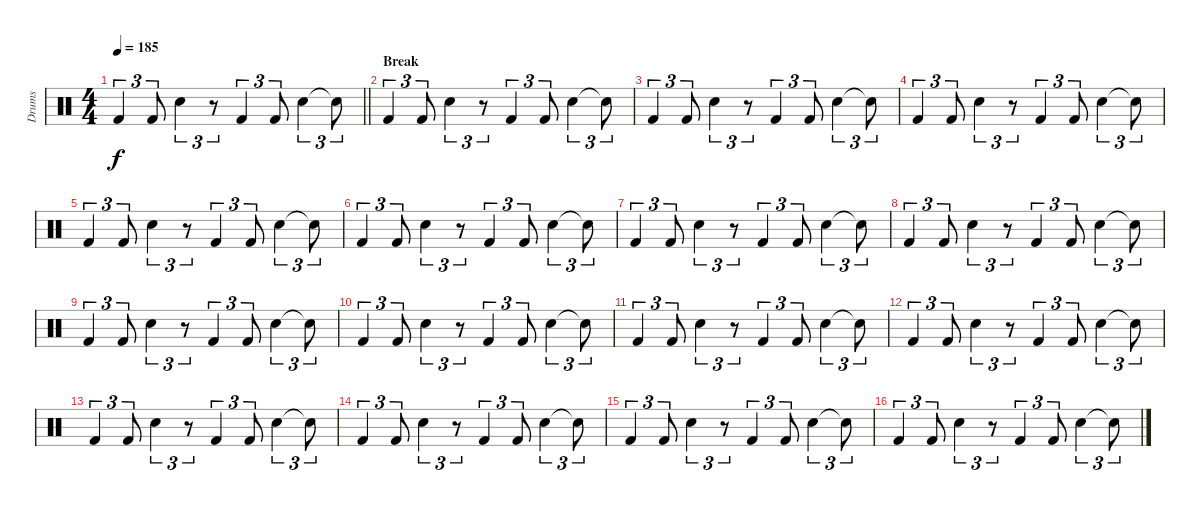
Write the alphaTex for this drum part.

\track ("Drums" "Drums") {instrument percussion}
\staff {score}
\articulation defaults
\ts (4 4)
\tempo 185
\clef neutral
\barLineRight lightlight
\ks c "Kick (hit) 2".4{tu (3 2) dy f} "Kick (hit) 2".8{tu (3 2)} "Snare (hit) 2".4{tu (3 2)}
r.8{tu (3 2)} "Kick (hit) 2".4{tu (3 2)} "Kick (hit) 2".8{tu (3 2)} "Snare (hit) 2".4{tu (3 2)} "Snare (hit)"{t}.8{tu (3 2)} |
\section ("" "Break")
"Kick (hit) 2".4{tu (3 2)} "Kick (hit) 2".8{tu (3 2)} "Snare (hit) 2".4{tu (3 2)} r.8{tu (3 2)} "Kick (hit) 2".4{tu (3 2)} "Kick (hit) 2".8{tu (3 2)} "Snare (hit) 2".4{tu (3 2)} "Snare (hit)"{t}.8{tu (3 2)} |
"Kick (hit) 2".4{tu (3 2)} "Kick (hit) 2".8{tu (3 2)} "Snare (hit) 2".4{tu (3 2)} r.8{tu (3 2)} "Kick (hit) 2".4{tu (3 2)} "Kick (hit) 2".8{tu (3 2)} "Snare (hit) 2".4{tu (3 2)} "Snare (hit)"{t}.8{tu (3 2)} |
"Kick (hit) 2".4{tu (3 2)} "Kick (hit) 2".8{tu (3 2)} "Snare (hit) 2".4{tu (3 2)} r.8{tu (3 2)} "Kick (hit) 2".4{tu (3 2)} "Kick (hit) 2".8{tu (3 2)} "Snare (hit) 2".4{tu (3 2)} "Snare (hit)"{t}.8{tu (3 2)} |
"Kick (hit) 2".4{tu (3 2)} "Kick (hit) 2".8{tu (3 2)} "Snare (hit) 2".4{tu (3 2)} r.8{tu (3 2)} "Kick (hit) 2".4{tu (3 2)} "Kick (hit) 2".8{tu (3 2)} "Snare (hit) 2".4{tu (3 2)} "Snare (hit)"{t}.8{tu (3 2)} |
"Kick (hit) 2".4{tu (3 2)} "Kick (hit) 2".8{tu (3 2)} "Snare (hit) 2".4{tu (3 2)} r.8{tu (3 2)} "Kick (hit) 2".4{tu (3 2)} "Kick (hit) 2".8{tu (3 2)} "Snare (hit) 2".4{tu (3 2)} "Snare (hit)"{t}.8{tu (3 2)} |
"Kick (hit) 2".4{tu (3 2)} "Kick (hit) 2".8{tu (3 2)} "Snare (hit) 2".4{tu (3 2)} r.8{tu (3 2)} "Kick (hit) 2".4{tu (3 2)} "Kick (hit) 2".8{tu (3 2)} "Snare (hit) 2".4{tu (3 2)} "Snare (hit)"{t}.8{tu (3 2)} |
"Kick (hit) 2".4{tu (3 2)} "Kick (hit) 2".8{tu (3 2)} "Snare (hit) 2".4{tu (3 2)} r.8{tu (3 2)} "Kick (hit) 2".4{tu (3 2)} "Kick (hit) 2".8{tu (3 2)} "Snare (hit) 2".4{tu (3 2)} "Snare (hit)"{t}.8{tu (3 2)} |
"Kick (hit) 2".4{tu (3 2)} "Kick (hit) 2".8{tu (3 2)} "Snare (hit) 2".4{tu (3 2)} r.8{tu (3 2)} "Kick (hit) 2".4{tu (3 2)} "Kick (hit) 2".8{tu (3 2)} "Snare (hit) 2".4{tu (3 2)} "Snare (hit)"{t}.8{tu (3 2)} |
"Kick (hit) 2".4{tu (3 2)} "Kick (hit) 2".8{tu (3 2)} "Snare (hit) 2".4{tu (3 2)} r.8{tu (3 2)} "Kick (hit) 2".4{tu (3 2)} "Kick (hit) 2".8{tu (3 2)} "Snare (hit) 2".4{tu (3 2)} "Snare (hit)"{t}.8{tu (3 2)} |
"Kick (hit) 2".4{tu (3 2)} "Kick (hit) 2".8{tu (3 2)} "Snare (hit) 2".4{tu (3 2)} r.8{tu (3 2)} "Kick (hit) 2".4{tu (3 2)} "Kick (hit) 2".8{tu (3 2)} "Snare (hit) 2".4{tu (3 2)} "Snare (hit)"{t}.8{tu (3 2)} |
"Kick (hit) 2".4{tu (3 2)} "Kick (hit) 2".8{tu (3 2)} "Snare (hit) 2".4{tu (3 2)} r.8{tu (3 2)} "Kick (hit) 2".4{tu (3 2)} "Kick (hit) 2".8{tu (3 2)} "Snare (hit) 2".4{tu (3 2)} "Snare (hit)"{t}.8{tu (3 2)} |
"Kick (hit) 2".4{tu (3 2)} "Kick (hit) 2".8{tu (3 2)} "Snare (hit) 2".4{tu (3 2)} r.8{tu (3 2)} "Kick (hit) 2".4{tu (3 2)} "Kick (hit) 2".8{tu (3 2)} "Snare (hit) 2".4{tu (3 2)} "Snare (hit)"{t}.8{tu (3 2)} |
"Kick (hit) 2".4{tu (3 2)} "Kick (hit) 2".8{tu (3 2)} "Snare (hit) 2".4{tu (3 2)} r.8{tu (3 2)} "Kick (hit) 2".4{tu (3 2)} "Kick (hit) 2".8{tu (3 2)} "Snare (hit) 2".4{tu (3 2)} "Snare (hit)"{t}.8{tu (3 2)} |
"Kick (hit) 2".4{tu (3 2)} "Kick (hit) 2".8{tu (3 2)} "Snare (hit) 2".4{tu (3 2)} r.8{tu (3 2)} "Kick (hit) 2".4{tu (3 2)} "Kick (hit) 2".8{tu (3 2)} "Snare (hit) 2".4{tu (3 2)} "Snare (hit)"{t}.8{tu (3 2)} |
"Kick (hit) 2".4{tu (3 2)} "Kick (hit) 2".8{tu (3 2)} "Snare (hit) 2".4{tu (3 2)} r.8{tu (3 2)} "Kick (hit) 2".4{tu (3 2)} "Kick (hit) 2".8{tu (3 2)} "Snare (hit) 2".4{tu (3 2)} "Snare (hit)"{t}.8{tu (3 2)}
